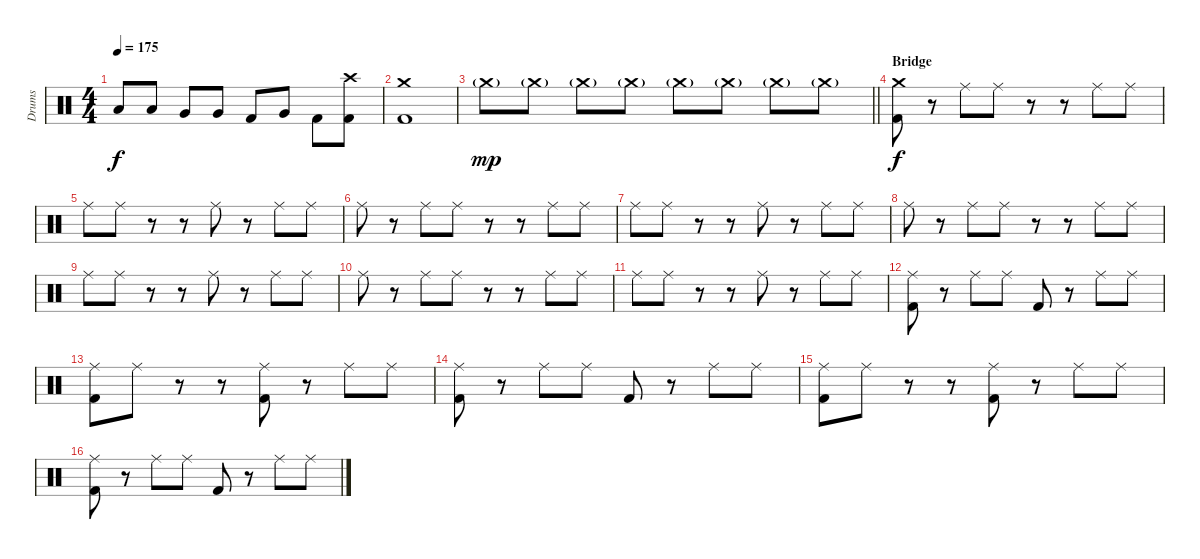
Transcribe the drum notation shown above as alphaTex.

\track ("Drums" "Drums") {instrument percussion}
\staff {score}
\articulation defaults
\ts (4 4)
\tempo 175
\clef neutral
\ks c "Low Tom (hit)".8{dy f} "Low Tom (hit)".8 "Very Low Tom (hit)".8 "Very Low Tom (hit)".8 "Kick (hit) 2".8 "Very Low Tom (hit)".8 "Kick (hit) 2".8
("Crash high (hit)" "Kick (hit) 2").8 |
("Crash medium (hit)" "Kick (hit) 2").1 |
\barLineRight lightlight "Crash medium (hit)"{g}.8{dy mp} "Crash medium (hit)"{g}.8 "Crash medium (hit)"{g}.8 "Crash medium (hit)"{g}.8 "Crash medium (hit)"{g}.8 "Crash medium (hit)"{g}.8 "Crash medium (hit)"{g}.8 "Crash medium (hit)"{g}.8
|
\section ("" "Bridge")
("Crash medium (hit)" "Kick (hit) 2").8{dy f} r.8 "Ride (middle)".8 "Ride (middle)".8 r.8 r.8 "Ride (middle)".8 "Ride (middle)".8 |
"Ride (middle)".8 "Ride (middle)".8 r.8 r.8 "Ride (middle)".8 r.8 "Ride (middle)".8 "Ride (middle)".8 |
"Ride (middle)".8 r.8 "Ride (middle)".8 "Ride (middle)".8 r.8 r.8 "Ride (middle)".8 "Ride (middle)".8 |
"Ride (middle)".8 "Ride (middle)".8 r.8 r.8 "Ride (middle)".8 r.8 "Ride (middle)".8 "Ride (middle)".8 |
"Ride (middle)".8 r.8 "Ride (middle)".8 "Ride (middle)".8 r.8 r.8 "Ride (middle)".8 "Ride (middle)".8 |
"Ride (middle)".8 "Ride (middle)".8 r.8 r.8 "Ride (middle)".8 r.8 "Ride (middle)".8 "Ride (middle)".8 |
"Ride (middle)".8 r.8 "Ride (middle)".8 "Ride (middle)".8 r.8 r.8 "Ride (middle)".8 "Ride (middle)".8 |
"Ride (middle)".8 "Ride (middle)".8 r.8 r.8 "Ride (middle)".8 r.8 "Ride (middle)".8 "Ride (middle)".8 |
("Ride (middle)" "Kick (hit) 2").8 r.8 "Ride (middle)".8 "Ride (middle)".8 "Kick (hit) 2".8 r.8 "Ride (middle)".8 "Ride (middle)".8 |
("Ride (middle)" "Kick (hit) 2").8 "Ride (middle)".8 r.8 r.8 ("Ride (middle)" "Kick (hit) 2").8 r.8 "Ride (middle)".8 "Ride (middle)".8 |
("Ride (middle)" "Kick (hit) 2").8 r.8 "Ride (middle)".8 "Ride (middle)".8 "Kick (hit) 2".8 r.8 "Ride (middle)".8 "Ride (middle)".8 |
("Ride (middle)" "Kick (hit) 2").8 "Ride (middle)".8 r.8 r.8 ("Ride (middle)" "Kick (hit) 2").8 r.8 "Ride (middle)".8 "Ride (middle)".8 |
("Ride (middle)" "Kick (hit) 2").8 r.8 "Ride (middle)".8 "Ride (middle)".8 "Kick (hit) 2".8 r.8 "Ride (middle)".8 "Ride (middle)".8
